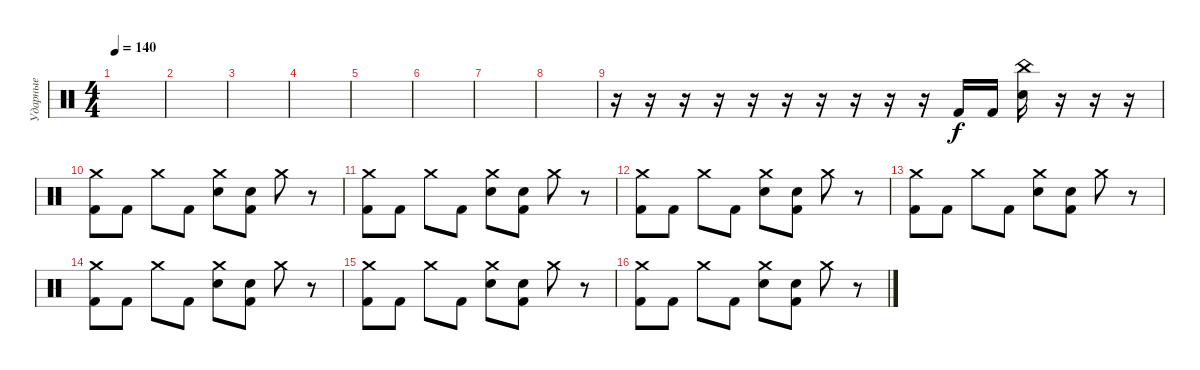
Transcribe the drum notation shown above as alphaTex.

\track ("Ударные" "Ударные") {instrument percussion}
\staff {score}
\articulation defaults
\ts (4 4)
\tempo 140
\clef neutral
\ks c
|
|
|
|
|
|
|
|
r.16 r.16 r.16 r.16 r.16 r.16 r.16 r.16 r.16 r.16 "Kick (hit) 2".16 "Kick (hit) 2".16 ("China (hit)" "Electric Snare (hit)").16 r.16 r.16 r.16 |
("Crash medium (hit)" "Kick (hit) 2").8 "Kick (hit) 2".8 "Crash medium (hit)".8 "Kick (hit) 2".8 ("Crash medium (hit)" "Electric Snare (hit)").8 ("Snare (hit)" "Kick (hit) 2").8 "Crash medium (hit)".8 r.8 |
("Crash medium (hit)" "Kick (hit) 2").8 "Kick (hit) 2".8 "Crash medium (hit)".8 "Kick (hit) 2".8 ("Crash medium (hit)" "Electric Snare (hit)").8 ("Snare (hit)" "Kick (hit) 2").8 "Crash medium (hit)".8 r.8 |
("Crash medium (hit)" "Kick (hit) 2").8 "Kick (hit) 2".8 "Crash medium (hit)".8 "Kick (hit) 2".8 ("Crash medium (hit)" "Electric Snare (hit)").8 ("Snare (hit)" "Kick (hit) 2").8 "Crash medium (hit)".8 r.8 |
("Crash medium (hit)" "Kick (hit) 2").8 "Kick (hit) 2".8 "Crash medium (hit)".8 "Kick (hit) 2".8 ("Crash medium (hit)" "Electric Snare (hit)").8 ("Snare (hit)" "Kick (hit) 2").8 "Crash medium (hit)".8 r.8 |
("Crash medium (hit)" "Kick (hit) 2").8 "Kick (hit) 2".8 "Crash medium (hit)".8 "Kick (hit) 2".8 ("Crash medium (hit)" "Electric Snare (hit)").8 ("Snare (hit)" "Kick (hit) 2").8 "Crash medium (hit)".8 r.8 |
("Crash medium (hit)" "Kick (hit) 2").8 "Kick (hit) 2".8 "Crash medium (hit)".8 "Kick (hit) 2".8 ("Crash medium (hit)" "Electric Snare (hit)").8 ("Snare (hit)" "Kick (hit) 2").8 "Crash medium (hit)".8 r.8 |
("Crash medium (hit)" "Kick (hit) 2").8 "Kick (hit) 2".8 "Crash medium (hit)".8 "Kick (hit) 2".8 ("Crash medium (hit)" "Electric Snare (hit)").8 ("Snare (hit)" "Kick (hit) 2").8 "Crash medium (hit)".8 r.8
